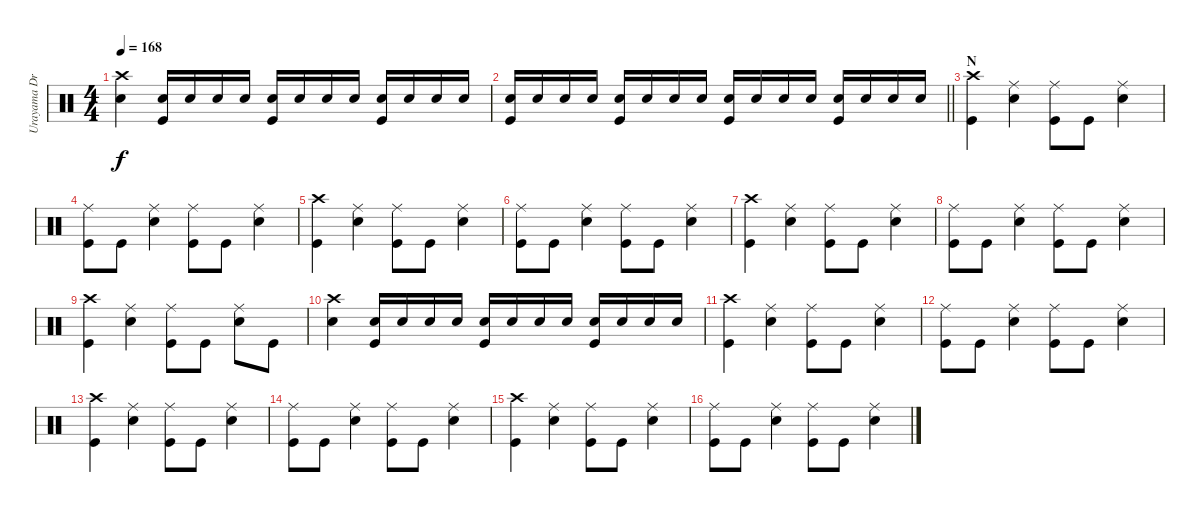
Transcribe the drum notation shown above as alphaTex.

\track ("Urayama Drums" "Urayama Dr") {instrument percussion}
\staff {score}
\articulation defaults
\ts (4 4)
\tempo 168
\clef neutral
\ks c
("Crash high (hit)" "Electric Snare (hit)").4{dy f} ("Electric Snare (hit)" "Kick (hit)").16 "Electric Snare (hit)".16 "Electric Snare (hit)".16 "Electric Snare (hit)".16 ("Electric Snare (hit)" "Kick (hit)").16 "Electric Snare (hit)".16 "Electric Snare (hit)".16 "Electric Snare (hit)".16 ("Electric Snare (hit)" "Kick (hit)").16 "Electric Snare (hit)".16 "Electric Snare (hit)".16 "Electric Snare (hit)".16 |
\barLineRight lightlight
("Electric Snare (hit)" "Kick (hit)").16 "Electric Snare (hit)".16 "Electric Snare (hit)".16 "Electric Snare (hit)".16 ("Electric Snare (hit)" "Kick (hit)").16 "Electric Snare (hit)".16 "Electric Snare (hit)".16 "Electric Snare (hit)".16 ("Electric Snare (hit)" "Kick (hit)").16 "Electric Snare (hit)".16 "Electric Snare (hit)".16 "Electric Snare (hit)".16 ("Electric Snare (hit)" "Kick (hit)").16 "Electric Snare (hit)".16 "Electric Snare (hit)".16 "Electric Snare (hit)".16 |
\section ("" "N")
("Crash high (hit)" "Kick (hit)").4 ("Ride (middle)" "Electric Snare (hit)").4 ("Ride (middle)" "Kick (hit)").8 "Kick (hit)".8 ("Ride (middle)" "Electric Snare (hit)").4 |
("Ride (middle)" "Kick (hit)").8 "Kick (hit)".8 ("Ride (middle)" "Electric Snare (hit)").4 ("Ride (middle)" "Kick (hit)").8 "Kick (hit)".8 ("Ride (middle)" "Electric Snare (hit)").4 |
("Crash high (hit)" "Kick (hit)").4 ("Ride (middle)" "Electric Snare (hit)").4 ("Ride (middle)" "Kick (hit)").8 "Kick (hit)".8 ("Ride (middle)" "Electric Snare (hit)").4 |
("Ride (middle)" "Kick (hit)").8 "Kick (hit)".8 ("Ride (middle)" "Electric Snare (hit)").4 ("Ride (middle)" "Kick (hit)").8 "Kick (hit)".8 ("Ride (middle)" "Electric Snare (hit)").4 |
("Crash high (hit)" "Kick (hit)").4 ("Ride (middle)" "Electric Snare (hit)").4 ("Ride (middle)" "Kick (hit)").8 "Kick (hit)".8 ("Ride (middle)" "Electric Snare (hit)").4 |
("Ride (middle)" "Kick (hit)").8 "Kick (hit)".8 ("Ride (middle)" "Electric Snare (hit)").4 ("Ride (middle)" "Kick (hit)").8 "Kick (hit)".8 ("Ride (middle)" "Electric Snare (hit)").4 |
("Crash high (hit)" "Kick (hit)").4 ("Ride (middle)" "Electric Snare (hit)").4 ("Ride (middle)" "Kick (hit)").8 "Kick (hit)".8 ("Ride (middle)" "Electric Snare (hit)").8 "Kick (hit)".8 |
("Crash high (hit)" "Electric Snare (hit)").4 ("Electric Snare (hit)" "Kick (hit)").16 "Electric Snare (hit)".16 "Electric Snare (hit)".16 "Electric Snare (hit)".16 ("Electric Snare (hit)" "Kick (hit)").16 "Electric Snare (hit)".16 "Electric Snare (hit)".16 "Electric Snare (hit)".16 ("Electric Snare (hit)" "Kick (hit)").16 "Electric Snare (hit)".16 "Electric Snare (hit)".16 "Electric Snare (hit)".16 |
("Crash high (hit)" "Kick (hit)").4 ("Ride (middle)" "Electric Snare (hit)").4 ("Ride (middle)" "Kick (hit)").8 "Kick (hit)".8 ("Ride (middle)" "Electric Snare (hit)").4 |
("Ride (middle)" "Kick (hit)").8 "Kick (hit)".8 ("Ride (middle)" "Electric Snare (hit)").4 ("Ride (middle)" "Kick (hit)").8 "Kick (hit)".8 ("Ride (middle)" "Electric Snare (hit)").4 |
("Crash high (hit)" "Kick (hit)").4 ("Ride (middle)" "Electric Snare (hit)").4 ("Ride (middle)" "Kick (hit)").8 "Kick (hit)".8 ("Ride (middle)" "Electric Snare (hit)").4 |
("Ride (middle)" "Kick (hit)").8 "Kick (hit)".8 ("Ride (middle)" "Electric Snare (hit)").4 ("Ride (middle)" "Kick (hit)").8 "Kick (hit)".8 ("Ride (middle)" "Electric Snare (hit)").4 |
("Crash high (hit)" "Kick (hit)").4 ("Ride (middle)" "Electric Snare (hit)").4 ("Ride (middle)" "Kick (hit)").8 "Kick (hit)".8 ("Ride (middle)" "Electric Snare (hit)").4 |
("Ride (middle)" "Kick (hit)").8 "Kick (hit)".8 ("Ride (middle)" "Electric Snare (hit)").4 ("Ride (middle)" "Kick (hit)").8 "Kick (hit)".8 ("Ride (middle)" "Electric Snare (hit)").4
